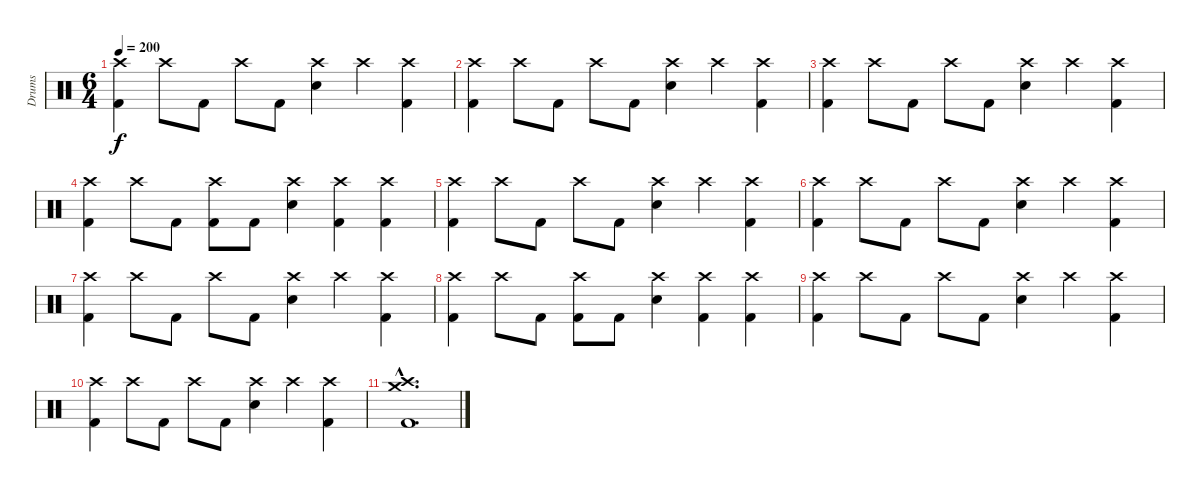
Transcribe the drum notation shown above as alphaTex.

\track ("Drums" "Drums") {instrument percussion}
\staff {score}
\articulation defaults
\ts (6 4)
\tempo 200
\clef neutral
\ks c
("Crash high (hit)" "Kick (hit) 2").4{dy f} "Crash high (hit)".8 "Kick (hit) 2".8 "Crash high (hit)".8 "Kick (hit) 2".8 ("Crash high (hit)" "Electric Snare (hit)").4 "Crash high (hit)".4 ("Kick (hit) 2" "Crash high (hit)").4 |
("Crash high (hit)" "Kick (hit) 2").4 "Crash high (hit)".8 "Kick (hit) 2".8 "Crash high (hit)".8 "Kick (hit) 2".8 ("Crash high (hit)" "Electric Snare (hit)").4 "Crash high (hit)".4 ("Kick (hit) 2" "Crash high (hit)").4 |
("Crash high (hit)" "Kick (hit) 2").4 "Crash high (hit)".8 "Kick (hit) 2".8 "Crash high (hit)".8 "Kick (hit) 2".8 ("Crash high (hit)" "Electric Snare (hit)").4 "Crash high (hit)".4 ("Kick (hit) 2" "Crash high (hit)").4 |
("Crash high (hit)" "Kick (hit) 2").4 "Crash high (hit)".8 "Kick (hit) 2".8 ("Crash high (hit)" "Kick (hit) 2").8 "Kick (hit) 2".8 ("Electric Snare (hit)" "Crash high (hit)").4 ("Kick (hit) 2" "Crash high (hit)").4 ("Kick (hit) 2" "Crash high (hit)").4 |
("Crash high (hit)" "Kick (hit) 2").4 "Crash high (hit)".8 "Kick (hit) 2".8 "Crash high (hit)".8 "Kick (hit) 2".8 ("Crash high (hit)" "Electric Snare (hit)").4 "Crash high (hit)".4 ("Kick (hit) 2" "Crash high (hit)").4 |
("Crash high (hit)" "Kick (hit) 2").4 "Crash high (hit)".8 "Kick (hit) 2".8 "Crash high (hit)".8 "Kick (hit) 2".8 ("Crash high (hit)" "Electric Snare (hit)").4 "Crash high (hit)".4 ("Kick (hit) 2" "Crash high (hit)").4 |
("Crash high (hit)" "Kick (hit) 2").4 "Crash high (hit)".8 "Kick (hit) 2".8 "Crash high (hit)".8 "Kick (hit) 2".8 ("Crash high (hit)" "Electric Snare (hit)").4 "Crash high (hit)".4 ("Kick (hit) 2" "Crash high (hit)").4 |
("Crash high (hit)" "Kick (hit) 2").4 "Crash high (hit)".8 "Kick (hit) 2".8 ("Crash high (hit)" "Kick (hit) 2").8 "Kick (hit) 2".8 ("Electric Snare (hit)" "Crash high (hit)").4 ("Kick (hit) 2" "Crash high (hit)").4 ("Kick (hit) 2" "Crash high (hit)").4 |
("Crash high (hit)" "Kick (hit) 2").4 "Crash high (hit)".8 "Kick (hit) 2".8 "Crash high (hit)".8 "Kick (hit) 2".8 ("Crash high (hit)" "Electric Snare (hit)").4 "Crash high (hit)".4 ("Kick (hit) 2" "Crash high (hit)").4 |
("Crash high (hit)" "Kick (hit) 2").4 "Crash high (hit)".8 "Kick (hit) 2".8 "Crash high (hit)".8 "Kick (hit) 2".8 ("Crash high (hit)" "Electric Snare (hit)").4 "Crash high (hit)".4 ("Kick (hit) 2" "Crash high (hit)").4 |
("Kick (hit) 2"{hac} "Crash high (hit)"{hac} "Crash medium (hit)"{hac}).1{d}
